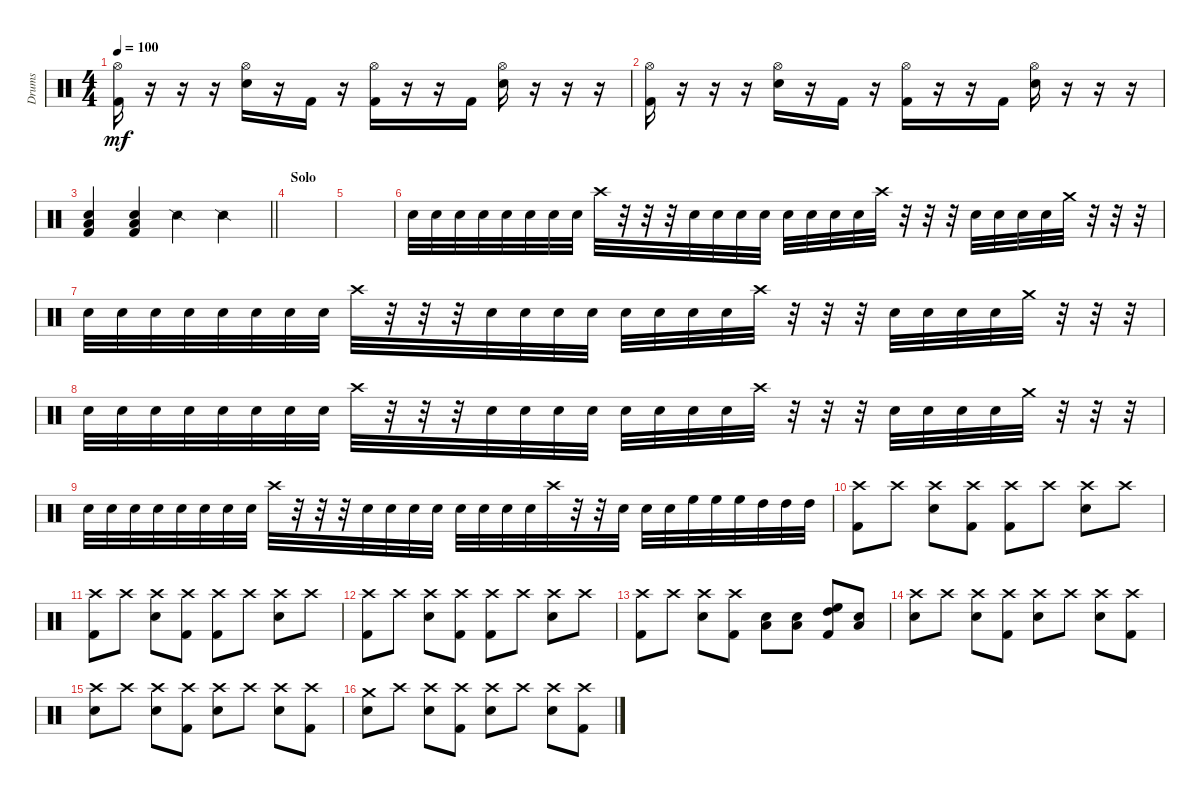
\track ("Drums" "Drums") {instrument percussion}
\staff {score}
\articulation defaults
\ts (4 4)
\tempo 100
\clef neutral
\ks c
("Hi-Hat (open)" "Kick (hit) 2").16{dy mf} r.16 r.16 r.16 ("Hi-Hat (open)" "Snare (hit) 2").16 r.16 "Kick (hit) 2".16 r.16 ("Hi-Hat (open)" "Kick (hit) 2").16 r.16 r.16 "Kick (hit) 2".16 ("Hi-Hat (open)" "Snare (hit) 2").16 r.16 r.16 r.16 |
("Hi-Hat (open)" "Kick (hit) 2").16 r.16 r.16 r.16 ("Hi-Hat (open)" "Snare (hit) 2").16 r.16 "Kick (hit) 2".16 r.16 ("Hi-Hat (open)" "Kick (hit) 2").16 r.16 r.16 "Kick (hit) 2".16 ("Hi-Hat (open)" "Snare (hit) 2").16 r.16 r.16 r.16 |
\barLineRight lightlight
("Kick (hit) 2" "Snare (hit) 2" "Low Tom (hit)").4 ("Kick (hit) 2" "Snare (hit) 2" "Low Tom (hit)").4 "Snare (side stick) 2".4 "Snare (side stick) 2".4 |
\section ("" "Solo")
|
|
"Snare (hit) 2".32 "Snare (hit) 2".32 "Snare (hit) 2".32 "Snare (hit) 2".32 "Snare (hit) 2".32 "Snare (hit) 2".32 "Snare (hit) 2".32 "Snare (hit) 2".32 "Crash high (hit)".32 r.32 r.32 r.32 "Snare (hit) 2".32 "Snare (hit) 2".32 "Snare (hit) 2".32 "Snare (hit) 2".32 "Snare (hit) 2".32 "Snare (hit) 2".32 "Snare (hit) 2".32 "Snare (hit) 2".32 "Crash high (hit)".32 r.32 r.32 r.32 "Snare (hit) 2".32 "Snare (hit) 2".32 "Snare (hit) 2".32 "Snare (hit) 2".32 "Crash medium (hit)".32 r.32 r.32 r.32 |
"Snare (hit) 2".32 "Snare (hit) 2".32 "Snare (hit) 2".32 "Snare (hit) 2".32 "Snare (hit) 2".32 "Snare (hit) 2".32 "Snare (hit) 2".32 "Snare (hit) 2".32 "Crash high (hit)".32 r.32 r.32 r.32 "Snare (hit) 2".32 "Snare (hit) 2".32 "Snare (hit) 2".32 "Snare (hit) 2".32 "Snare (hit) 2".32 "Snare (hit) 2".32 "Snare (hit) 2".32 "Snare (hit) 2".32 "Crash high (hit)".32 r.32 r.32 r.32 "Snare (hit) 2".32 "Snare (hit) 2".32 "Snare (hit) 2".32 "Snare (hit) 2".32 "Crash medium (hit)".32 r.32 r.32 r.32 |
"Snare (hit) 2".32 "Snare (hit) 2".32 "Snare (hit) 2".32 "Snare (hit) 2".32 "Snare (hit) 2".32 "Snare (hit) 2".32 "Snare (hit) 2".32 "Snare (hit) 2".32 "Crash high (hit)".32 r.32 r.32 r.32 "Snare (hit) 2".32 "Snare (hit) 2".32 "Snare (hit) 2".32 "Snare (hit) 2".32 "Snare (hit) 2".32 "Snare (hit) 2".32 "Snare (hit) 2".32 "Snare (hit) 2".32 "Crash high (hit)".32 r.32 r.32 r.32 "Snare (hit) 2".32 "Snare (hit) 2".32 "Snare (hit) 2".32 "Snare (hit) 2".32 "Crash medium (hit)".32 r.32 r.32 r.32 |
"Snare (hit) 2".32 "Snare (hit) 2".32 "Snare (hit) 2".32 "Snare (hit) 2".32 "Snare (hit) 2".32 "Snare (hit) 2".32 "Snare (hit) 2".32 "Snare (hit) 2".32 "Crash high (hit)".32 r.32 r.32 r.32 "Snare (hit) 2".32 "Snare (hit) 2".32 "Snare (hit) 2".32 "Snare (hit) 2".32 "Snare (hit) 2".32 "Snare (hit) 2".32 "Snare (hit) 2".32 "Snare (hit) 2".32 "Crash high (hit)".32 r.32 r.32 "Snare (hit) 2".32 "Snare (hit) 2".32 "Snare (hit) 2".32 "High Floor Tom (hit)".32 "High Floor Tom (hit)".32 "High Floor Tom (hit)".32 "High Tom (hit)".32 "High Tom (hit)".32 "High Tom (hit)".32 |
("Crash high (hit)" "Kick (hit) 2").8 "Crash high (hit)".8 ("Crash high (hit)" "Snare (hit) 2").8 ("Crash high (hit)" "Kick (hit) 2").8 ("Crash high (hit)" "Kick (hit) 2").8 "Crash high (hit)".8 ("Crash high (hit)" "Snare (hit) 2").8 "Crash high (hit)".8 |
("Crash high (hit)" "Kick (hit) 2").8 "Crash high (hit)".8 ("Crash high (hit)" "Snare (hit) 2").8 ("Crash high (hit)" "Kick (hit) 2").8 ("Crash high (hit)" "Kick (hit) 2").8 "Crash high (hit)".8 ("Crash high (hit)" "Snare (hit) 2").8 "Crash high (hit)".8 |
("Crash high (hit)" "Kick (hit) 2").8 "Crash high (hit)".8 ("Crash high (hit)" "Snare (hit) 2").8 ("Crash high (hit)" "Kick (hit) 2").8 ("Crash high (hit)" "Kick (hit) 2").8 "Crash high (hit)".8 ("Crash high (hit)" "Snare (hit) 2").8 "Crash high (hit)".8 |
("Crash high (hit)" "Kick (hit) 2").8 "Crash high (hit)".8 ("Crash high (hit)" "Snare (hit) 2").8 ("Crash high (hit)" "Kick (hit) 2").8 ("Snare (hit) 2" "Low Tom (hit)").8 ("Snare (hit) 2" "Low Tom (hit)").8 ("Kick (hit) 2" "High Floor Tom (hit)" "High Tom (hit)").8 ("Snare (hit) 2" "Low Tom (hit)").8 |
("Crash high (hit)" "Snare (hit) 2").8 "Crash high (hit)".8 ("Crash high (hit)" "Snare (hit) 2").8 ("Crash high (hit)" "Kick (hit) 2").8 ("Crash high (hit)" "Snare (hit) 2").8 "Crash high (hit)".8 ("Crash high (hit)" "Snare (hit) 2").8 ("Crash high (hit)" "Kick (hit) 2").8 |
("Crash high (hit)" "Snare (hit) 2").8 "Crash high (hit)".8 ("Crash high (hit)" "Snare (hit) 2").8 ("Crash high (hit)" "Kick (hit) 2").8 ("Crash high (hit)" "Snare (hit) 2").8 "Crash high (hit)".8 ("Crash high (hit)" "Snare (hit) 2").8 ("Crash high (hit)" "Kick (hit) 2").8 |
("Crash medium (hit)" "Snare (hit) 2").8 "Crash high (hit)".8 ("Crash high (hit)" "Snare (hit) 2").8 ("Crash high (hit)" "Kick (hit) 2").8 ("Crash high (hit)" "Snare (hit) 2").8 "Crash high (hit)".8 ("Crash high (hit)" "Snare (hit) 2").8 ("Crash high (hit)" "Kick (hit) 2").8
